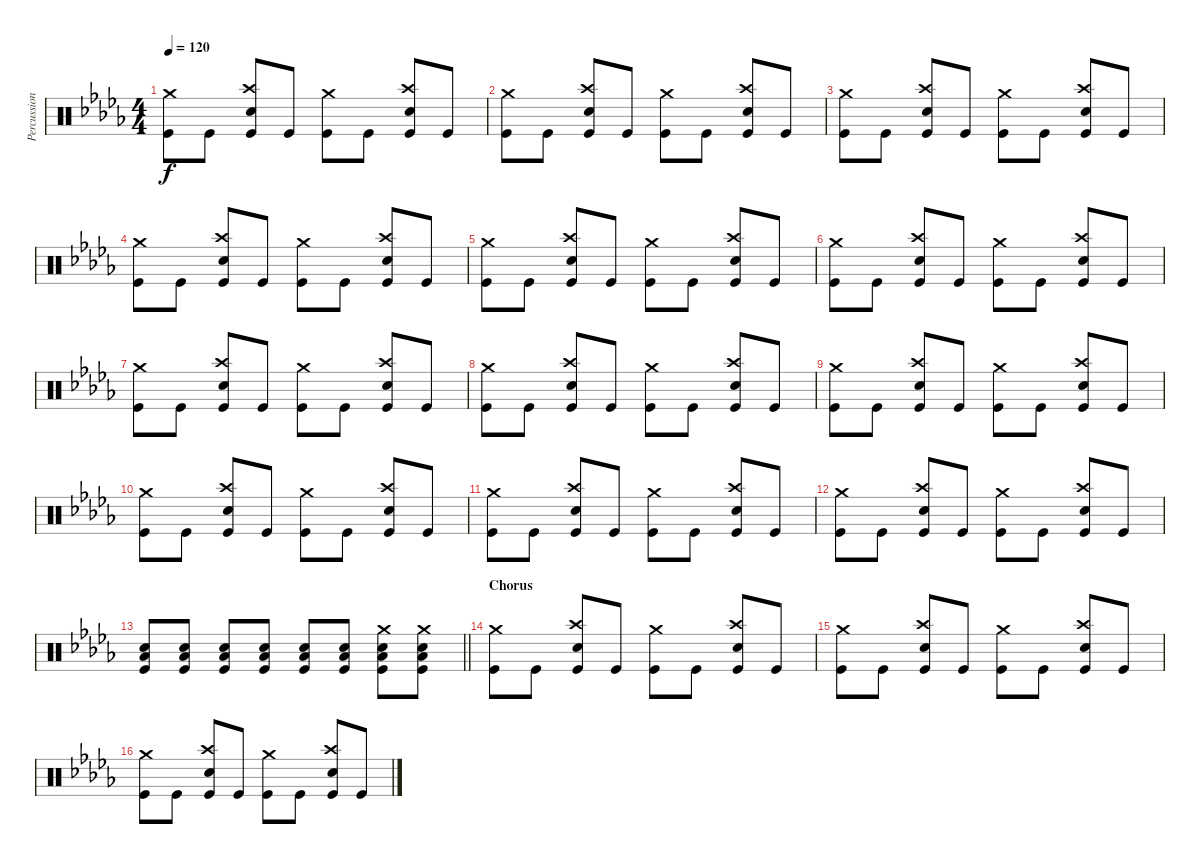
\track ("Percussion" "Percussion") {instrument percussion}
\staff {score}
\articulation defaults
\ts (4 4)
\tempo 120
\clef neutral
\ks bbminor
("Crash medium (hit)" "Kick (hit)").8{dy f} "Kick (hit)".8 ("Crash high (hit)" "Snare (hit) 2" "Kick (hit)").8 "Kick (hit)".8 ("Crash medium (hit)" "Kick (hit)").8 "Kick (hit)".8 ("Crash high (hit)" "Snare (hit) 2" "Kick (hit)").8 "Kick (hit)".8 |
("Crash medium (hit)" "Kick (hit)").8 "Kick (hit)".8 ("Crash high (hit)" "Snare (hit) 2" "Kick (hit)").8 "Kick (hit)".8 ("Crash medium (hit)" "Kick (hit)").8 "Kick (hit)".8 ("Crash high (hit)" "Snare (hit) 2" "Kick (hit)").8 "Kick (hit)".8 |
("Crash medium (hit)" "Kick (hit)").8 "Kick (hit)".8 ("Crash high (hit)" "Snare (hit) 2" "Kick (hit)").8 "Kick (hit)".8 ("Crash medium (hit)" "Kick (hit)").8 "Kick (hit)".8 ("Crash high (hit)" "Snare (hit) 2" "Kick (hit)").8 "Kick (hit)".8 |
("Crash medium (hit)" "Kick (hit)").8 "Kick (hit)".8 ("Crash high (hit)" "Snare (hit) 2" "Kick (hit)").8 "Kick (hit)".8 ("Crash medium (hit)" "Kick (hit)").8 "Kick (hit)".8 ("Crash high (hit)" "Snare (hit) 2" "Kick (hit)").8 "Kick (hit)".8 |
("Crash medium (hit)" "Kick (hit)").8 "Kick (hit)".8 ("Crash high (hit)" "Snare (hit) 2" "Kick (hit)").8 "Kick (hit)".8 ("Crash medium (hit)" "Kick (hit)").8 "Kick (hit)".8 ("Crash high (hit)" "Snare (hit) 2" "Kick (hit)").8 "Kick (hit)".8 |
("Crash medium (hit)" "Kick (hit)").8 "Kick (hit)".8 ("Crash high (hit)" "Snare (hit) 2" "Kick (hit)").8 "Kick (hit)".8 ("Crash medium (hit)" "Kick (hit)").8 "Kick (hit)".8 ("Crash high (hit)" "Snare (hit) 2" "Kick (hit)").8 "Kick (hit)".8 |
("Crash medium (hit)" "Kick (hit)").8 "Kick (hit)".8 ("Crash high (hit)" "Snare (hit) 2" "Kick (hit)").8 "Kick (hit)".8 ("Crash medium (hit)" "Kick (hit)").8 "Kick (hit)".8 ("Crash high (hit)" "Snare (hit) 2" "Kick (hit)").8 "Kick (hit)".8 |
("Crash medium (hit)" "Kick (hit)").8 "Kick (hit)".8 ("Crash high (hit)" "Snare (hit) 2" "Kick (hit)").8 "Kick (hit)".8 ("Crash medium (hit)" "Kick (hit)").8 "Kick (hit)".8 ("Crash high (hit)" "Snare (hit) 2" "Kick (hit)").8 "Kick (hit)".8 |
("Crash medium (hit)" "Kick (hit)").8 "Kick (hit)".8 ("Crash high (hit)" "Snare (hit) 2" "Kick (hit)").8 "Kick (hit)".8 ("Crash medium (hit)" "Kick (hit)").8 "Kick (hit)".8 ("Crash high (hit)" "Snare (hit) 2" "Kick (hit)").8 "Kick (hit)".8 |
("Crash medium (hit)" "Kick (hit)").8 "Kick (hit)".8 ("Crash high (hit)" "Snare (hit) 2" "Kick (hit)").8 "Kick (hit)".8 ("Crash medium (hit)" "Kick (hit)").8 "Kick (hit)".8 ("Crash high (hit)" "Snare (hit) 2" "Kick (hit)").8 "Kick (hit)".8 |
("Crash medium (hit)" "Kick (hit)").8 "Kick (hit)".8 ("Crash high (hit)" "Snare (hit) 2" "Kick (hit)").8 "Kick (hit)".8 ("Crash medium (hit)" "Kick (hit)").8 "Kick (hit)".8 ("Crash high (hit)" "Snare (hit) 2" "Kick (hit)").8 "Kick (hit)".8 |
("Crash medium (hit)" "Kick (hit)").8 "Kick (hit)".8 ("Crash high (hit)" "Snare (hit) 2" "Kick (hit)").8 "Kick (hit)".8 ("Crash medium (hit)" "Kick (hit)").8 "Kick (hit)".8 ("Crash high (hit)" "Snare (hit) 2" "Kick (hit)").8 "Kick (hit)".8 |
\barLineRight lightlight
("Snare (hit) 2" "Low Floor Tom (hit)" "Kick (hit)").8 ("Snare (hit) 2" "Low Floor Tom (hit)" "Kick (hit)").8 ("Snare (hit) 2" "Low Floor Tom (hit)" "Kick (hit)").8 ("Snare (hit) 2" "Low Floor Tom (hit)" "Kick (hit)").8 ("Snare (hit) 2" "Low Floor Tom (hit)" "Kick (hit)").8 ("Snare (hit) 2" "Low Floor Tom (hit)" "Kick (hit)").8 ("Crash medium (hit)" "Snare (hit) 2" "Low Floor Tom (hit)" "Kick (hit)").8 ("Crash medium (hit)" "Snare (hit) 2" "Low Floor Tom (hit)" "Kick (hit)").8 |
\section ("" "Chorus")
("Crash medium (hit)" "Kick (hit)").8 "Kick (hit)".8 ("Crash high (hit)" "Snare (hit) 2" "Kick (hit)").8 "Kick (hit)".8 ("Crash medium (hit)" "Kick (hit)").8 "Kick (hit)".8 ("Crash high (hit)" "Snare (hit) 2" "Kick (hit)").8 "Kick (hit)".8 |
("Crash medium (hit)" "Kick (hit)").8 "Kick (hit)".8 ("Crash high (hit)" "Snare (hit) 2" "Kick (hit)").8 "Kick (hit)".8 ("Crash medium (hit)" "Kick (hit)").8 "Kick (hit)".8 ("Crash high (hit)" "Snare (hit) 2" "Kick (hit)").8 "Kick (hit)".8 |
("Crash medium (hit)" "Kick (hit)").8 "Kick (hit)".8 ("Crash high (hit)" "Snare (hit) 2" "Kick (hit)").8 "Kick (hit)".8 ("Crash medium (hit)" "Kick (hit)").8 "Kick (hit)".8 ("Crash high (hit)" "Snare (hit) 2" "Kick (hit)").8 "Kick (hit)".8
